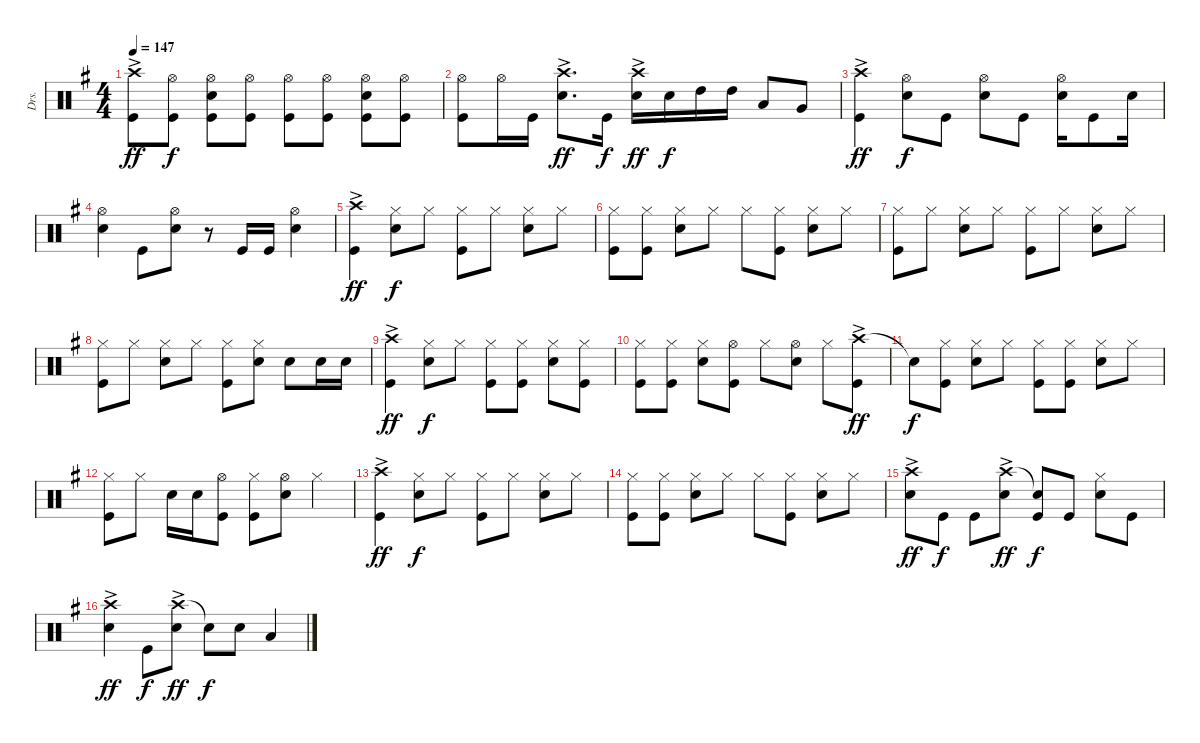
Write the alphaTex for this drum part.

\track ("Drs." "Drs.") {instrument percussion}
\staff {score}
\articulation defaults
\ts (4 4)
\tempo 147
\clef neutral
\ks g
("Crash high (hit)"{ac} "Kick (hit)").8{dy ff} ("Hi-Hat (open)" "Kick (hit)").8{dy f} ("Hi-Hat (open)" "Snare (hit) 2" "Kick (hit)").8 ("Hi-Hat (open)" "Kick (hit)").8 ("Hi-Hat (open)" "Kick (hit)").8 ("Hi-Hat (open)" "Kick (hit)").8 ("Hi-Hat (open)" "Snare (hit) 2" "Kick (hit)").8 ("Hi-Hat (open)" "Kick (hit)").8 |
("Hi-Hat (open)" "Kick (hit)").8 "Hi-Hat (open)".16 "Kick (hit)".16 ("Crash high (hit)"{ac} "Snare (hit) 2").8{d dy ff} "Kick (hit)".16{dy f} ("Crash high (hit)"{ac} "Snare (hit) 2").16{dy ff} "Snare (hit) 2".16{dy f} "High Tom (hit)".16 "High Tom (hit)".16 "Low Tom (hit)".8 "Very Low Tom (hit)".8 |
("Crash high (hit)"{ac} "Kick (hit)").4{dy ff} ("Hi-Hat (open)" "Snare (hit) 2").8{dy f} "Kick (hit)".8 ("Hi-Hat (open)" "Snare (hit) 2").8 "Kick (hit)".8 ("Hi-Hat (open)" "Snare (hit) 2").16 "Kick (hit)".8 "Snare (hit) 2".16 |
("Hi-Hat (open)" "Snare (hit) 2").4 "Kick (hit)".8 ("Hi-Hat (open)" "Snare (hit) 2").8 r.8 "Kick (hit)".16 "Kick (hit)".16 ("Hi-Hat (open)" "Snare (hit) 2").4 |
\ks eminor
("Crash high (hit)"{ac} "Kick (hit)").4{dy ff} ("Hi-Hat (closed)" "Snare (hit) 2").8{dy f} "Hi-Hat (closed)".8 ("Hi-Hat (closed)" "Kick (hit)").8 "Hi-Hat (closed)".8 ("Hi-Hat (closed)" "Snare (hit) 2").8 "Hi-Hat (closed)".8 |
("Hi-Hat (closed)" "Kick (hit)").8 ("Hi-Hat (closed)" "Kick (hit)").8 ("Hi-Hat (closed)" "Snare (hit) 2").8 "Hi-Hat (closed)".8 "Hi-Hat (closed)".8 ("Hi-Hat (closed)" "Kick (hit)").8 ("Hi-Hat (closed)" "Snare (hit) 2").8 "Hi-Hat (closed)".8 |
("Hi-Hat (closed)" "Kick (hit)").8 "Hi-Hat (closed)".8 ("Hi-Hat (closed)" "Snare (hit) 2").8 "Hi-Hat (closed)".8 ("Hi-Hat (closed)" "Kick (hit)").8 "Hi-Hat (closed)".8 ("Hi-Hat (closed)" "Snare (hit) 2").8 "Hi-Hat (closed)".8 |
("Hi-Hat (closed)" "Kick (hit)").8 "Hi-Hat (closed)".8 ("Hi-Hat (closed)" "Snare (hit) 2").8 "Hi-Hat (closed)".8 ("Hi-Hat (closed)" "Kick (hit)").8 ("Hi-Hat (closed)" "Snare (hit) 2").8 "Snare (hit) 2".8 "Snare (hit) 2".16 "Snare (hit) 2".16 |
("Crash high (hit)"{ac} "Kick (hit)").4{dy ff} ("Hi-Hat (closed)" "Snare (hit) 2").8{dy f} "Hi-Hat (closed)".8 ("Hi-Hat (closed)" "Kick (hit)").8 ("Hi-Hat (closed)" "Kick (hit)").8 ("Hi-Hat (closed)" "Snare (hit) 2").8 ("Hi-Hat (closed)" "Kick (hit)").8 |
("Hi-Hat (closed)" "Kick (hit)").8 ("Hi-Hat (closed)" "Kick (hit)").8 ("Hi-Hat (closed)" "Snare (hit) 2").8 ("Hi-Hat (open)" "Kick (hit)").8 "Hi-Hat (closed)".8 ("Hi-Hat (open)" "Snare (hit) 2").8 "Hi-Hat (closed)".8 ("Crash high (hit)"{ac} "Kick (hit)").8{dy ff} |
"Snare (hit)"{t}.8{dy f} ("Hi-Hat (closed)" "Kick (hit)").8 ("Hi-Hat (closed)" "Snare (hit) 2").8 "Hi-Hat (closed)".8 ("Hi-Hat (closed)" "Kick (hit)").8 ("Hi-Hat (closed)" "Kick (hit)").8 ("Hi-Hat (closed)" "Snare (hit) 2").8 "Hi-Hat (closed)".8 |
("Hi-Hat (closed)" "Kick (hit)").8 "Hi-Hat (closed)".8 "Snare (hit) 2".16 "Snare (hit) 2".16 ("Hi-Hat (open)" "Kick (hit)").8 ("Hi-Hat (closed)" "Kick (hit)").8 ("Hi-Hat (open)" "Snare (hit) 2").8 "Hi-Hat (closed)".4 |
("Crash high (hit)"{ac} "Kick (hit)").4{dy ff} ("Hi-Hat (closed)" "Snare (hit) 2").8{dy f} "Hi-Hat (closed)".8 ("Hi-Hat (closed)" "Kick (hit)").8 "Hi-Hat (closed)".8 ("Hi-Hat (closed)" "Snare (hit) 2").8 "Hi-Hat (closed)".8 |
("Hi-Hat (closed)" "Kick (hit)").8 ("Hi-Hat (closed)" "Kick (hit)").8 ("Hi-Hat (closed)" "Snare (hit) 2").8 "Hi-Hat (closed)".8 "Hi-Hat (closed)".8 ("Hi-Hat (closed)" "Kick (hit)").8 ("Hi-Hat (closed)" "Snare (hit) 2").8 "Hi-Hat (closed)".8 |
("Crash high (hit)"{ac} "Snare (hit) 2").8{dy ff} "Kick (hit)".8{dy f} "Kick (hit)".8 ("Crash high (hit)"{ac} "Snare (hit) 2").8{dy ff} ("Snare (hit)"{t} "Kick (hit)").8{dy f} "Kick (hit)".8 ("Hi-Hat (closed)" "Snare (hit) 2").8 "Kick (hit)".8 |
("Crash high (hit)"{ac} "Snare (hit) 2").4{dy ff} "Kick (hit)".8{dy f} ("Crash high (hit)"{ac} "Snare (hit) 2").8{dy ff} "Snare (hit)"{t}.8{dy f} "Snare (hit) 2".8 "Low Tom (hit)".4
